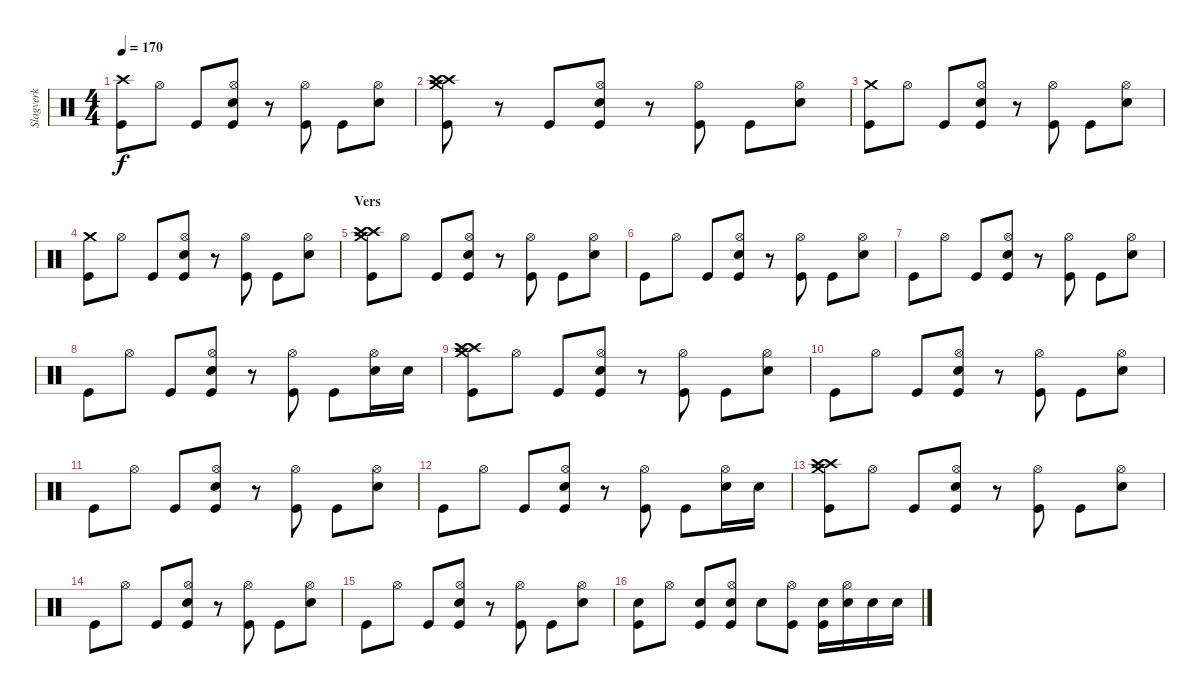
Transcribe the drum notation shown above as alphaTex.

\track ("Slagverk" "Slagverk") {instrument percussion}
\staff {score}
\articulation defaults
\ts (4 4)
\tempo 170
\clef neutral
\ks c
("Crash high (hit)" "Kick (hit)").8{dy f} "Hi-Hat (open)".8 "Kick (hit)".8 ("Hi-Hat (open)" "Snare (hit) 2" "Kick (hit)").8 r.8 ("Hi-Hat (open)" "Kick (hit)").8 "Kick (hit)".8 ("Hi-Hat (open)" "Snare (hit) 2").8 |
("Crash high (hit)" "Crash high (hit)" "Crash medium (hit)" "Kick (hit)").8 r.8 "Kick (hit)".8 ("Hi-Hat (open)" "Snare (hit) 2" "Kick (hit)").8 r.8 ("Hi-Hat (open)" "Kick (hit)").8 "Kick (hit)".8 ("Hi-Hat (open)" "Snare (hit) 2").8 |
("Crash medium (hit)" "Kick (hit)").8 "Hi-Hat (open)".8 "Kick (hit)".8 ("Hi-Hat (open)" "Snare (hit) 2" "Kick (hit)").8 r.8 ("Hi-Hat (open)" "Kick (hit)").8 "Kick (hit)".8 ("Hi-Hat (open)" "Snare (hit) 2").8 |
("Crash medium (hit)" "Kick (hit)").8 "Hi-Hat (open)".8 "Kick (hit)".8 ("Hi-Hat (open)" "Snare (hit) 2" "Kick (hit)").8 r.8 ("Hi-Hat (open)" "Kick (hit)").8 "Kick (hit)".8 ("Hi-Hat (open)" "Snare (hit) 2").8 |
\section ("" "Vers")
("Crash high (hit)" "Crash high (hit)" "Crash medium (hit)" "Kick (hit)").8 "Hi-Hat (open)".8 "Kick (hit)".8 ("Hi-Hat (open)" "Snare (hit) 2" "Kick (hit)").8 r.8 ("Hi-Hat (open)" "Kick (hit)").8 "Kick (hit)".8 ("Hi-Hat (open)" "Snare (hit) 2").8 |
"Kick (hit)".8 "Hi-Hat (open)".8 "Kick (hit)".8 ("Hi-Hat (open)" "Snare (hit) 2" "Kick (hit)").8 r.8 ("Hi-Hat (open)" "Kick (hit)").8 "Kick (hit)".8 ("Hi-Hat (open)" "Snare (hit) 2").8 |
"Kick (hit)".8 "Hi-Hat (open)".8 "Kick (hit)".8 ("Hi-Hat (open)" "Snare (hit) 2" "Kick (hit)").8 r.8 ("Hi-Hat (open)" "Kick (hit)").8 "Kick (hit)".8 ("Hi-Hat (open)" "Snare (hit) 2").8 |
"Kick (hit)".8 "Hi-Hat (open)".8 "Kick (hit)".8 ("Hi-Hat (open)" "Snare (hit) 2" "Kick (hit)").8 r.8 ("Hi-Hat (open)" "Kick (hit)").8 "Kick (hit)".8 ("Hi-Hat (open)" "Snare (hit) 2").16 "Snare (hit) 2".16 |
("Crash high (hit)" "Crash high (hit)" "Crash medium (hit)" "Kick (hit)").8 "Hi-Hat (open)".8 "Kick (hit)".8 ("Hi-Hat (open)" "Snare (hit) 2" "Kick (hit)").8 r.8 ("Hi-Hat (open)" "Kick (hit)").8 "Kick (hit)".8 ("Hi-Hat (open)" "Snare (hit) 2").8 |
"Kick (hit)".8 "Hi-Hat (open)".8 "Kick (hit)".8 ("Hi-Hat (open)" "Snare (hit) 2" "Kick (hit)").8 r.8 ("Hi-Hat (open)" "Kick (hit)").8 "Kick (hit)".8 ("Hi-Hat (open)" "Snare (hit) 2").8 |
"Kick (hit)".8 "Hi-Hat (open)".8 "Kick (hit)".8 ("Hi-Hat (open)" "Snare (hit) 2" "Kick (hit)").8 r.8 ("Hi-Hat (open)" "Kick (hit)").8 "Kick (hit)".8 ("Hi-Hat (open)" "Snare (hit) 2").8 |
"Kick (hit)".8 "Hi-Hat (open)".8 "Kick (hit)".8 ("Hi-Hat (open)" "Snare (hit) 2" "Kick (hit)").8 r.8 ("Hi-Hat (open)" "Kick (hit)").8 "Kick (hit)".8 ("Hi-Hat (open)" "Snare (hit) 2").16 "Snare (hit) 2".16 |
("Crash high (hit)" "Crash high (hit)" "Crash medium (hit)" "Kick (hit)").8 "Hi-Hat (open)".8 "Kick (hit)".8 ("Hi-Hat (open)" "Snare (hit) 2" "Kick (hit)").8 r.8 ("Hi-Hat (open)" "Kick (hit)").8 "Kick (hit)".8 ("Hi-Hat (open)" "Snare (hit) 2").8 |
"Kick (hit)".8 "Hi-Hat (open)".8 "Kick (hit)".8 ("Hi-Hat (open)" "Snare (hit) 2" "Kick (hit)").8 r.8 ("Hi-Hat (open)" "Kick (hit)").8 "Kick (hit)".8 ("Hi-Hat (open)" "Snare (hit) 2").8 |
"Kick (hit)".8 "Hi-Hat (open)".8 "Kick (hit)".8 ("Hi-Hat (open)" "Snare (hit) 2" "Kick (hit)").8 r.8 ("Hi-Hat (open)" "Kick (hit)").8 "Kick (hit)".8 ("Hi-Hat (open)" "Snare (hit) 2").8 |
("Snare (hit) 2" "Kick (hit)").8 "Hi-Hat (open)".8 ("Snare (hit) 2" "Kick (hit)").8 ("Hi-Hat (open)" "Snare (hit) 2" "Kick (hit)").8 "Snare (hit) 2".8 ("Hi-Hat (open)" "Kick (hit)").8 ("Snare (hit) 2" "Kick (hit)").16 ("Hi-Hat (open)" "Snare (hit) 2").16 "Snare (hit) 2".16 "Snare (hit) 2".16
